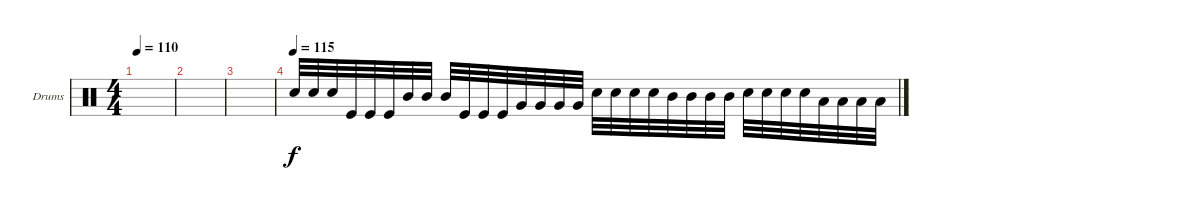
\bracketExtendMode groupsimilarinstruments
\firstSystemTrackNameOrientation horizontal
\otherSystemsTrackNameOrientation horizontal
\track ("Drumkit" "Drums") {instrument percussion}
\staff {score}
\articulation defaults
\ts (4 4)
\tempo 110
\clef neutral
\ks c
|
|
|
\tempo (115)
"Snare (hit) 2".32 "Snare (hit) 2".32 "Snare (hit) 2".32 "Kick (hit)".32 "Kick (hit)".32 "Kick (hit)".32 "Mid Tom (hit)".32 "Mid Tom (hit)".32 "Mid Tom (hit)".32 "Kick (hit)".32 "Kick (hit)".32 "Kick (hit)".32 "Very Low Tom (hit)".32 "Very Low Tom (hit)".32 "Very Low Tom (hit)".32 "Very Low Tom (hit)".32 "Snare (hit) 2".32 "Snare (hit) 2".32 "Snare (hit) 2".32 "Snare (hit) 2".32 "Mid Tom (hit)".32 "Mid Tom (hit)".32 "Mid Tom (hit)".32 "Mid Tom (hit)".32 "Snare (hit) 2".32 "Snare (hit) 2".32 "Snare (hit) 2".32 "Snare (hit) 2".32 "Low Tom (hit)".32 "Low Tom (hit)".32 "Low Tom (hit)".32 "Low Tom (hit)".32
